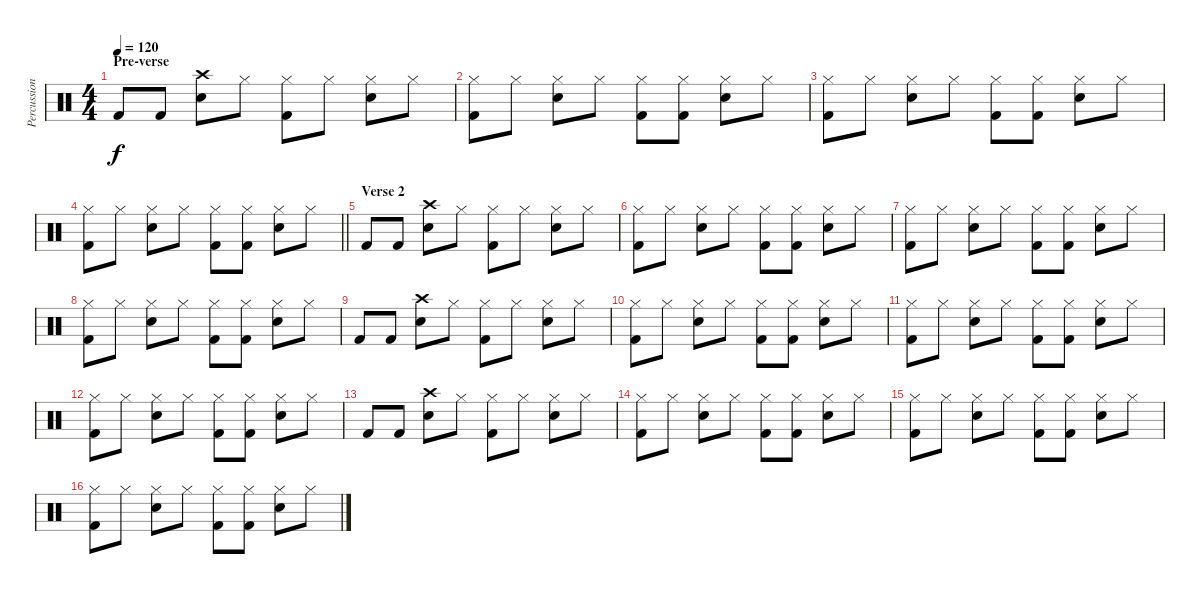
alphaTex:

\track ("Percussion" "Percussion") {instrument percussion}
\staff {score}
\articulation defaults
\ts (4 4)
\section ("" "Pre-verse")
\tempo 120
\clef neutral
\ks c "Kick (hit) 2".8{dy f} "Kick (hit) 2".8
("Crash high (hit)" "Snare (hit) 2").8 "Hi-Hat (closed)".8 ("Hi-Hat (closed)" "Kick (hit) 2").8 "Hi-Hat (closed)".8 ("Hi-Hat (closed)" "Snare (hit) 2").8 "Hi-Hat (closed)".8 |
("Hi-Hat (closed)" "Kick (hit) 2").8 "Hi-Hat (closed)".8 ("Hi-Hat (closed)" "Snare (hit) 2").8 "Hi-Hat (closed)".8 ("Hi-Hat (closed)" "Kick (hit) 2").8 ("Hi-Hat (closed)" "Kick (hit) 2").8 ("Hi-Hat (closed)" "Snare (hit) 2").8 "Hi-Hat (closed)".8 |
("Hi-Hat (closed)" "Kick (hit) 2").8 "Hi-Hat (closed)".8 ("Hi-Hat (closed)" "Snare (hit) 2").8 "Hi-Hat (closed)".8 ("Hi-Hat (closed)" "Kick (hit) 2").8 ("Hi-Hat (closed)" "Kick (hit) 2").8 ("Hi-Hat (closed)" "Snare (hit) 2").8 "Hi-Hat (closed)".8 |
\barLineRight lightlight
("Hi-Hat (closed)" "Kick (hit) 2").8 "Hi-Hat (closed)".8 ("Hi-Hat (closed)" "Snare (hit) 2").8 "Hi-Hat (closed)".8 ("Hi-Hat (closed)" "Kick (hit) 2").8 ("Hi-Hat (closed)" "Kick (hit) 2").8 ("Hi-Hat (closed)" "Snare (hit) 2").8 "Hi-Hat (closed)".8 |
\section ("" "Verse 2")
"Kick (hit) 2".8 "Kick (hit) 2".8 ("Crash high (hit)" "Snare (hit) 2").8 "Hi-Hat (closed)".8 ("Hi-Hat (closed)" "Kick (hit) 2").8 "Hi-Hat (closed)".8 ("Hi-Hat (closed)" "Snare (hit) 2").8 "Hi-Hat (closed)".8 |
("Hi-Hat (closed)" "Kick (hit) 2").8 "Hi-Hat (closed)".8 ("Hi-Hat (closed)" "Snare (hit) 2").8 "Hi-Hat (closed)".8 ("Hi-Hat (closed)" "Kick (hit) 2").8 ("Hi-Hat (closed)" "Kick (hit) 2").8 ("Hi-Hat (closed)" "Snare (hit) 2").8 "Hi-Hat (closed)".8 |
("Hi-Hat (closed)" "Kick (hit) 2").8 "Hi-Hat (closed)".8 ("Hi-Hat (closed)" "Snare (hit) 2").8 "Hi-Hat (closed)".8 ("Hi-Hat (closed)" "Kick (hit) 2").8 ("Hi-Hat (closed)" "Kick (hit) 2").8 ("Hi-Hat (closed)" "Snare (hit) 2").8 "Hi-Hat (closed)".8 |
("Hi-Hat (closed)" "Kick (hit) 2").8 "Hi-Hat (closed)".8 ("Hi-Hat (closed)" "Snare (hit) 2").8 "Hi-Hat (closed)".8 ("Hi-Hat (closed)" "Kick (hit) 2").8 ("Hi-Hat (closed)" "Kick (hit) 2").8 ("Hi-Hat (closed)" "Snare (hit) 2").8 "Hi-Hat (closed)".8 |
"Kick (hit) 2".8 "Kick (hit) 2".8 ("Crash high (hit)" "Snare (hit) 2").8 "Hi-Hat (closed)".8 ("Hi-Hat (closed)" "Kick (hit) 2").8 "Hi-Hat (closed)".8 ("Hi-Hat (closed)" "Snare (hit) 2").8 "Hi-Hat (closed)".8 |
("Hi-Hat (closed)" "Kick (hit) 2").8 "Hi-Hat (closed)".8 ("Hi-Hat (closed)" "Snare (hit) 2").8 "Hi-Hat (closed)".8 ("Hi-Hat (closed)" "Kick (hit) 2").8 ("Hi-Hat (closed)" "Kick (hit) 2").8 ("Hi-Hat (closed)" "Snare (hit) 2").8 "Hi-Hat (closed)".8 |
("Hi-Hat (closed)" "Kick (hit) 2").8 "Hi-Hat (closed)".8 ("Hi-Hat (closed)" "Snare (hit) 2").8 "Hi-Hat (closed)".8 ("Hi-Hat (closed)" "Kick (hit) 2").8 ("Hi-Hat (closed)" "Kick (hit) 2").8 ("Hi-Hat (closed)" "Snare (hit) 2").8 "Hi-Hat (closed)".8 |
("Hi-Hat (closed)" "Kick (hit) 2").8 "Hi-Hat (closed)".8 ("Hi-Hat (closed)" "Snare (hit) 2").8 "Hi-Hat (closed)".8 ("Hi-Hat (closed)" "Kick (hit) 2").8 ("Hi-Hat (closed)" "Kick (hit) 2").8 ("Hi-Hat (closed)" "Snare (hit) 2").8 "Hi-Hat (closed)".8 |
"Kick (hit) 2".8 "Kick (hit) 2".8 ("Crash high (hit)" "Snare (hit) 2").8 "Hi-Hat (closed)".8 ("Hi-Hat (closed)" "Kick (hit) 2").8 "Hi-Hat (closed)".8 ("Hi-Hat (closed)" "Snare (hit) 2").8 "Hi-Hat (closed)".8 |
("Hi-Hat (closed)" "Kick (hit) 2").8 "Hi-Hat (closed)".8 ("Hi-Hat (closed)" "Snare (hit) 2").8 "Hi-Hat (closed)".8 ("Hi-Hat (closed)" "Kick (hit) 2").8 ("Hi-Hat (closed)" "Kick (hit) 2").8 ("Hi-Hat (closed)" "Snare (hit) 2").8 "Hi-Hat (closed)".8 |
("Hi-Hat (closed)" "Kick (hit) 2").8 "Hi-Hat (closed)".8 ("Hi-Hat (closed)" "Snare (hit) 2").8 "Hi-Hat (closed)".8 ("Hi-Hat (closed)" "Kick (hit) 2").8 ("Hi-Hat (closed)" "Kick (hit) 2").8 ("Hi-Hat (closed)" "Snare (hit) 2").8 "Hi-Hat (closed)".8 |
("Hi-Hat (closed)" "Kick (hit) 2").8 "Hi-Hat (closed)".8 ("Hi-Hat (closed)" "Snare (hit) 2").8 "Hi-Hat (closed)".8 ("Hi-Hat (closed)" "Kick (hit) 2").8 ("Hi-Hat (closed)" "Kick (hit) 2").8 ("Hi-Hat (closed)" "Snare (hit) 2").8 "Hi-Hat (closed)".8
